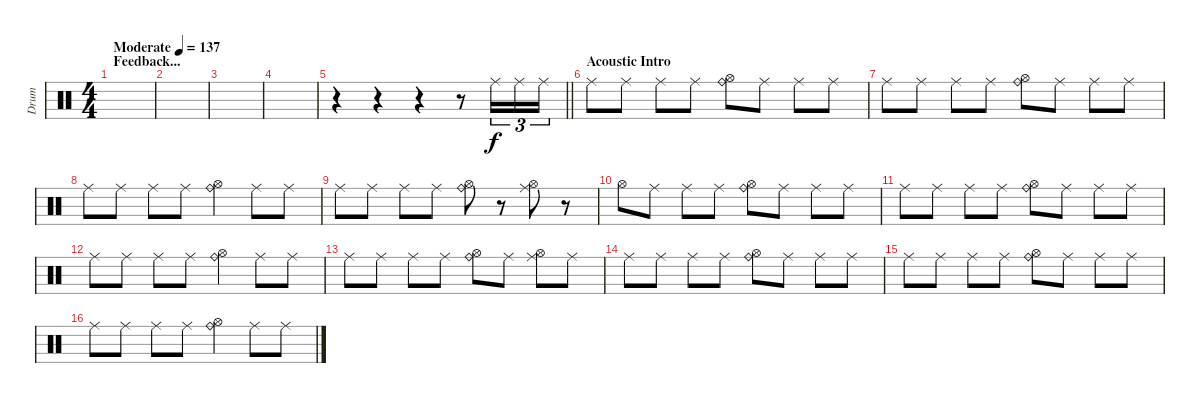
\track ("Drum" "Drum") {instrument percussion}
\staff {score}
\articulation defaults
\ts (4 4)
\section ("" "Feedback...")
\tempo (137 "Moderate")
\clef neutral
\ks c
|
|
|
|
\barLineRight lightlight
r.4 r.4 r.4 r.8 "Ride (middle)".16{tu (3 2)} "Ride (middle)".16{tu (3 2)} "Ride (middle)".16{tu (3 2)} |
\section ("" "Acoustic Intro")
"Ride (middle)".8 "Ride (middle)".8 "Ride (middle)".8 "Ride (middle)".8 ("Ride (bell)" "Hi-Hat (open)").8 "Ride (middle)".8 "Ride (middle)".8 "Ride (middle)".8 |
"Ride (middle)".8 "Ride (middle)".8 "Ride (middle)".8 "Ride (middle)".8 ("Ride (bell)" "Hi-Hat (open)").8 "Ride (middle)".8 "Ride (middle)".8 "Ride (middle)".8 |
"Ride (middle)".8 "Ride (middle)".8 "Ride (middle)".8 "Ride (middle)".8 ("Ride (bell)" "Hi-Hat (open)").4 "Ride (middle)".8 "Ride (middle)".8 |
"Ride (middle)".8 "Ride (middle)".8 "Ride (middle)".8 "Ride (middle)".8 ("Ride (bell)" "Hi-Hat (open)").8 r.8 ("Ride (middle)" "Hi-Hat (open)").8 r.8 |
"Hi-Hat (open)".8 "Ride (middle)".8 "Ride (middle)".8 "Ride (middle)".8 ("Ride (bell)" "Hi-Hat (open)").8 "Ride (middle)".8 "Ride (middle)".8 "Ride (middle)".8 |
"Ride (middle)".8 "Ride (middle)".8 "Ride (middle)".8 "Ride (middle)".8 ("Ride (bell)" "Hi-Hat (open)").8 "Ride (middle)".8 "Ride (middle)".8 "Ride (middle)".8 |
"Ride (middle)".8 "Ride (middle)".8 "Ride (middle)".8 "Ride (middle)".8 ("Ride (bell)" "Hi-Hat (open)").4 "Ride (middle)".8 "Ride (middle)".8 |
"Ride (middle)".8 "Ride (middle)".8 "Ride (middle)".8 "Ride (middle)".8 ("Ride (bell)" "Hi-Hat (open)").8 "Ride (middle)".8 ("Ride (middle)" "Hi-Hat (open)").8 "Ride (middle)".8 |
"Ride (middle)".8 "Ride (middle)".8 "Ride (middle)".8 "Ride (middle)".8 ("Ride (bell)" "Hi-Hat (open)").8 "Ride (middle)".8 "Ride (middle)".8 "Ride (middle)".8 |
"Ride (middle)".8 "Ride (middle)".8 "Ride (middle)".8 "Ride (middle)".8 ("Ride (bell)" "Hi-Hat (open)").8 "Ride (middle)".8 "Ride (middle)".8 "Ride (middle)".8 |
"Ride (middle)".8 "Ride (middle)".8 "Ride (middle)".8 "Ride (middle)".8 ("Ride (bell)" "Hi-Hat (open)").4 "Ride (middle)".8 "Ride (middle)".8
